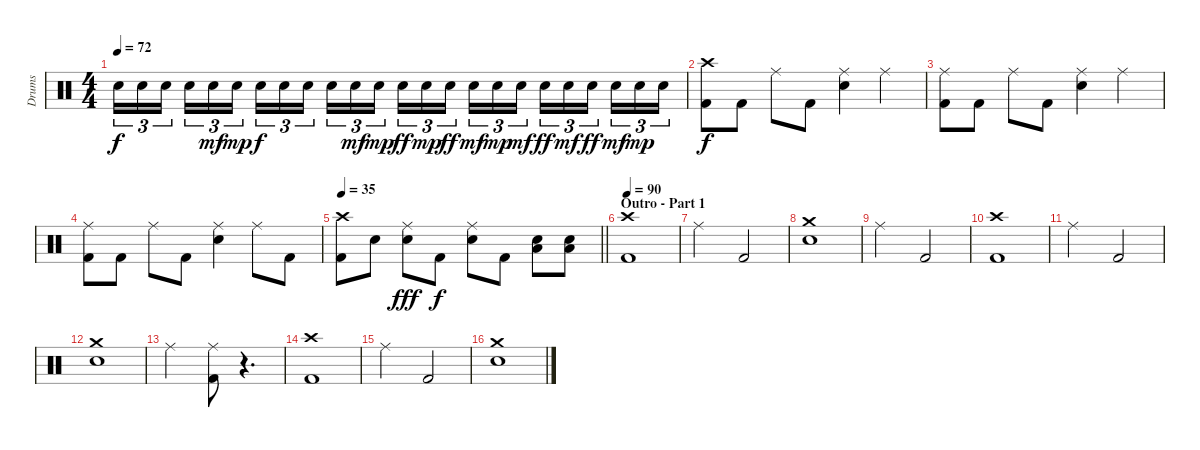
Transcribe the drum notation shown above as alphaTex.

\track ("Drums" "Drums") {instrument percussion}
\staff {score}
\articulation defaults
\ts (4 4)
\tempo 72
\clef neutral
\ks c "Electric Snare (hit)".16{tu (3 2) dy f} "Electric Snare (hit)".16{tu (3 2)} "Electric Snare (hit)".16{tu (3 2) beam splitsecondary} "Electric Snare (hit)".16{tu (3 2)} "Electric Snare (hit)".16{tu (3 2) dy mf} "Electric Snare (hit)".16{tu (3 2) dy mp} "Electric Snare (hit)".16{tu (3 2) dy f} "Electric Snare (hit)".16{tu (3 2)} "Electric Snare (hit)".16{tu (3 2) beam splitsecondary} "Electric Snare (hit)".16{tu (3 2)} "Electric Snare (hit)".16{tu (3 2) dy mf} "Electric Snare (hit)".16{tu (3 2) dy mp} "Electric Snare (hit)".16{tu (3 2) dy ff} "Electric Snare (hit)".16{tu (3 2) dy mp} "Electric Snare (hit)".16{tu (3 2) dy ff beam splitsecondary} "Electric Snare (hit)".16{tu (3 2) dy mf} "Electric Snare (hit)".16{tu (3 2) dy mp} "Electric Snare (hit)".16{tu (3 2) dy mf} "Electric Snare (hit)".16{tu (3 2) dy ff} "Electric Snare (hit)".16{tu (3 2) dy mf} "Electric Snare (hit)".16{tu (3 2) dy ff beam splitsecondary} "Electric Snare (hit)".16{tu (3 2) dy mf} "Electric Snare (hit)".16{tu (3 2) dy mp} "Electric Snare (hit)".16{tu (3 2)}
|
("Crash high (hit)" "Kick (hit) 2").8{dy f} "Kick (hit) 2".8 "Ride (middle)".8 "Kick (hit) 2".8 ("Ride (middle)" "Electric Snare (hit)").4 "Ride (middle)".4 |
("Ride (middle)" "Kick (hit) 2").8 "Kick (hit) 2".8 "Ride (middle)".8 "Kick (hit) 2".8 ("Ride (middle)" "Electric Snare (hit)").4 "Ride (middle)".4 |
("Ride (middle)" "Kick (hit) 2").8 "Kick (hit) 2".8 "Ride (middle)".8 "Kick (hit) 2".8 ("Ride (middle)" "Electric Snare (hit)").4 "Ride (middle)".8 "Kick (hit) 2".8 |
\tempo 35
\barLineRight lightlight
("Crash high (hit)" "Kick (hit) 2").8 "Electric Snare (hit)".8 ("Ride (middle)" "Electric Snare (hit)").8{dy fff} "Kick (hit) 2".8{dy f} ("Ride (middle)" "Electric Snare (hit)").8 "Kick (hit) 2".8 ("Low Tom (hit)" "Electric Snare (hit)").8 ("Low Floor Tom (hit)" "Electric Snare (hit)").8 |
\section ("" "Outro - Part 1")
\tempo 90
("Crash high (hit)" "Kick (hit) 2").1 |
"Ride (middle)".2 "Kick (hit) 2".2 |
("Crash medium (hit)" "Electric Snare (hit)").1 |
"Ride (middle)".2 "Kick (hit) 2".2 |
("Crash high (hit)" "Kick (hit) 2").1 |
"Ride (middle)".2 "Kick (hit) 2".2 |
("Crash medium (hit)" "Electric Snare (hit)").1 |
"Ride (middle)".2 ("Ride (middle)" "Kick (hit) 2").8 r.4{d} |
("Crash high (hit)" "Kick (hit) 2").1 |
"Ride (middle)".2 "Kick (hit) 2".2 |
("Crash medium (hit)" "Electric Snare (hit)").1
